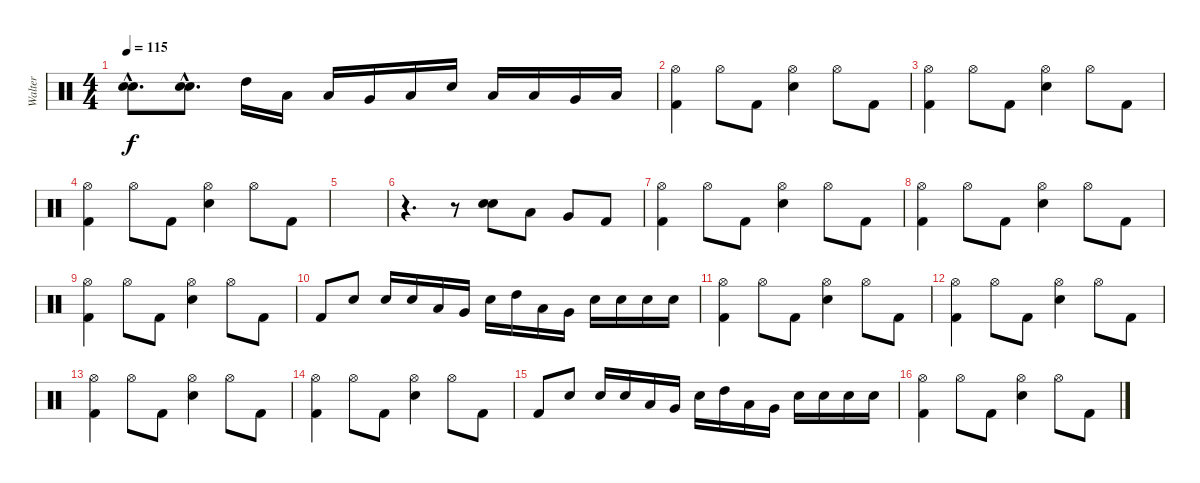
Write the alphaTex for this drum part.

\track ("Walter" "Walter") {instrument percussion}
\staff {score}
\articulation defaults
\ts (4 4)
\tempo 115
\clef neutral
\ks c
("Snare (hit) 2"{hac} "Snare (hit) 2"{hac}).8{d bd 240 dy f} ("Snare (hit) 2"{hac} "Snare (hit) 2"{hac}).8{d bd 240} "High Tom (hit)".16 "Low Tom (hit)".16 "Low Tom (hit)".16 "Very Low Tom (hit)".16 "Low Floor Tom (hit)".16 "Snare (hit) 2".16 "Low Tom (hit)".16 "Low Tom (hit)".16 "Very Low Tom (hit)".16 "Low Floor Tom (hit)".16 |
("Kick (hit) 2" "Hi-Hat (open)").4 "Hi-Hat (open)".8 "Kick (hit) 2".8 ("Snare (hit) 2" "Hi-Hat (open)").4 "Hi-Hat (open)".8 "Kick (hit) 2".8 |
("Kick (hit) 2" "Hi-Hat (open)").4 "Hi-Hat (open)".8 "Kick (hit) 2".8 ("Snare (hit) 2" "Hi-Hat (open)").4 "Hi-Hat (open)".8 "Kick (hit) 2".8 |
("Kick (hit) 2" "Hi-Hat (open)").4 "Hi-Hat (open)".8 "Kick (hit) 2".8 ("Snare (hit) 2" "Hi-Hat (open)").4 "Hi-Hat (open)".8 "Kick (hit) 2".8 |
|
r.4{d} r.8 ("Snare (hit) 2" "Snare (hit) 2").8{bd 240} "Low Tom (hit)".8 "Very Low Tom (hit)".8 "Kick (hit) 2".8 |
("Kick (hit) 2" "Hi-Hat (open)").4 "Hi-Hat (open)".8 "Kick (hit) 2".8 ("Snare (hit) 2" "Hi-Hat (open)").4 "Hi-Hat (open)".8 "Kick (hit) 2".8 |
("Kick (hit) 2" "Hi-Hat (open)").4 "Hi-Hat (open)".8 "Kick (hit) 2".8 ("Snare (hit) 2" "Hi-Hat (open)").4 "Hi-Hat (open)".8 "Kick (hit) 2".8 |
("Kick (hit) 2" "Hi-Hat (open)").4 "Hi-Hat (open)".8 "Kick (hit) 2".8 ("Snare (hit) 2" "Hi-Hat (open)").4 "Hi-Hat (open)".8 "Kick (hit) 2".8 |
"Kick (hit) 2".8 "Snare (hit) 2".8 "Snare (hit) 2".16 "Snare (hit) 2".16 "Low Tom (hit)".16 "Very Low Tom (hit)".16 "Snare (hit) 2".16 "High Tom (hit)".16 "Low Tom (hit)".16 "Very Low Tom (hit)".16 "Snare (hit) 2".16 "Snare (hit) 2".16 "Snare (hit) 2".16 "Snare (hit) 2".16 |
("Kick (hit) 2" "Hi-Hat (open)").4 "Hi-Hat (open)".8 "Kick (hit) 2".8 ("Snare (hit) 2" "Hi-Hat (open)").4 "Hi-Hat (open)".8 "Kick (hit) 2".8 |
("Kick (hit) 2" "Hi-Hat (open)").4 "Hi-Hat (open)".8 "Kick (hit) 2".8 ("Snare (hit) 2" "Hi-Hat (open)").4 "Hi-Hat (open)".8 "Kick (hit) 2".8 |
("Kick (hit) 2" "Hi-Hat (open)").4 "Hi-Hat (open)".8 "Kick (hit) 2".8 ("Snare (hit) 2" "Hi-Hat (open)").4 "Hi-Hat (open)".8 "Kick (hit) 2".8 |
("Kick (hit) 2" "Hi-Hat (open)").4 "Hi-Hat (open)".8 "Kick (hit) 2".8 ("Snare (hit) 2" "Hi-Hat (open)").4 "Hi-Hat (open)".8 "Kick (hit) 2".8 |
"Kick (hit) 2".8 "Snare (hit) 2".8 "Snare (hit) 2".16 "Snare (hit) 2".16 "Low Tom (hit)".16 "Very Low Tom (hit)".16 "Snare (hit) 2".16 "High Tom (hit)".16 "Low Tom (hit)".16 "Very Low Tom (hit)".16 "Snare (hit) 2".16 "Snare (hit) 2".16 "Snare (hit) 2".16 "Snare (hit) 2".16 |
("Kick (hit) 2" "Hi-Hat (open)").4 "Hi-Hat (open)".8 "Kick (hit) 2".8 ("Snare (hit) 2" "Hi-Hat (open)").4 "Hi-Hat (open)".8 "Kick (hit) 2".8
